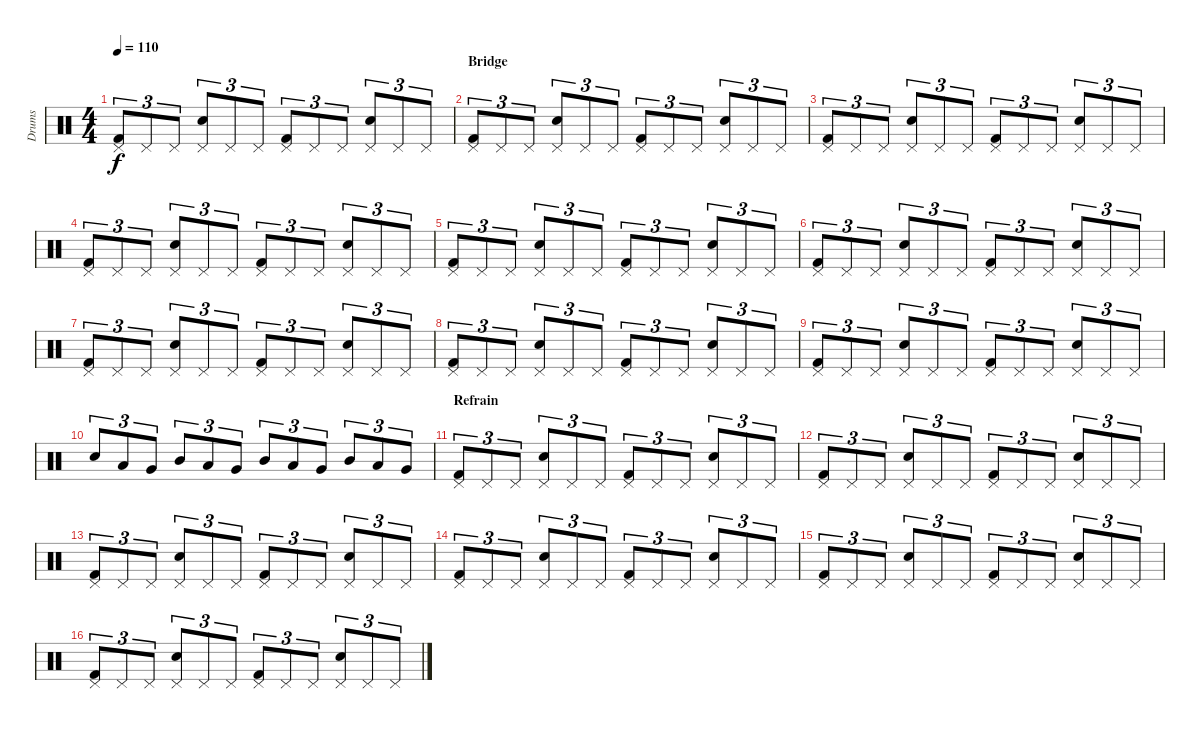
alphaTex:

\track ("Drums" "Drums") {instrument percussion}
\staff {score}
\articulation defaults
\ts (4 4)
\tempo 110
\clef neutral
\ks c
("Pedal Hi-Hat (hit)" "Kick (hit) 2").8{tu (3 2) dy f} "Pedal Hi-Hat (hit)".8{tu (3 2)} "Pedal Hi-Hat (hit)".8{tu (3 2)} ("Pedal Hi-Hat (hit)" "Electric Snare (hit)").8{tu (3 2)} "Pedal Hi-Hat (hit)".8{tu (3 2)} "Pedal Hi-Hat (hit)".8{tu (3 2)} ("Pedal Hi-Hat (hit)" "Kick (hit) 2").8{tu (3 2)} "Pedal Hi-Hat (hit)".8{tu (3 2)} "Pedal Hi-Hat (hit)".8{tu (3 2)} ("Pedal Hi-Hat (hit)" "Electric Snare (hit)").8{tu (3 2)} "Pedal Hi-Hat (hit)".8{tu (3 2)} "Pedal Hi-Hat (hit)".8{tu (3 2)} |
\section ("" "Bridge")
("Pedal Hi-Hat (hit)" "Kick (hit) 2").8{tu (3 2)} "Pedal Hi-Hat (hit)".8{tu (3 2)} "Pedal Hi-Hat (hit)".8{tu (3 2)} ("Pedal Hi-Hat (hit)" "Electric Snare (hit)").8{tu (3 2)} "Pedal Hi-Hat (hit)".8{tu (3 2)} "Pedal Hi-Hat (hit)".8{tu (3 2)} ("Pedal Hi-Hat (hit)" "Kick (hit) 2").8{tu (3 2)} "Pedal Hi-Hat (hit)".8{tu (3 2)} "Pedal Hi-Hat (hit)".8{tu (3 2)} ("Pedal Hi-Hat (hit)" "Electric Snare (hit)").8{tu (3 2)} "Pedal Hi-Hat (hit)".8{tu (3 2)} "Pedal Hi-Hat (hit)".8{tu (3 2)} |
("Pedal Hi-Hat (hit)" "Kick (hit) 2").8{tu (3 2)} "Pedal Hi-Hat (hit)".8{tu (3 2)} "Pedal Hi-Hat (hit)".8{tu (3 2)} ("Pedal Hi-Hat (hit)" "Electric Snare (hit)").8{tu (3 2)} "Pedal Hi-Hat (hit)".8{tu (3 2)} "Pedal Hi-Hat (hit)".8{tu (3 2)} ("Pedal Hi-Hat (hit)" "Kick (hit) 2").8{tu (3 2)} "Pedal Hi-Hat (hit)".8{tu (3 2)} "Pedal Hi-Hat (hit)".8{tu (3 2)} ("Pedal Hi-Hat (hit)" "Electric Snare (hit)").8{tu (3 2)} "Pedal Hi-Hat (hit)".8{tu (3 2)} "Pedal Hi-Hat (hit)".8{tu (3 2)} |
("Pedal Hi-Hat (hit)" "Kick (hit) 2").8{tu (3 2)} "Pedal Hi-Hat (hit)".8{tu (3 2)} "Pedal Hi-Hat (hit)".8{tu (3 2)} ("Pedal Hi-Hat (hit)" "Electric Snare (hit)").8{tu (3 2)} "Pedal Hi-Hat (hit)".8{tu (3 2)} "Pedal Hi-Hat (hit)".8{tu (3 2)} ("Pedal Hi-Hat (hit)" "Kick (hit) 2").8{tu (3 2)} "Pedal Hi-Hat (hit)".8{tu (3 2)} "Pedal Hi-Hat (hit)".8{tu (3 2)} ("Pedal Hi-Hat (hit)" "Electric Snare (hit)").8{tu (3 2)} "Pedal Hi-Hat (hit)".8{tu (3 2)} "Pedal Hi-Hat (hit)".8{tu (3 2)} |
("Pedal Hi-Hat (hit)" "Kick (hit) 2").8{tu (3 2)} "Pedal Hi-Hat (hit)".8{tu (3 2)} "Pedal Hi-Hat (hit)".8{tu (3 2)} ("Pedal Hi-Hat (hit)" "Electric Snare (hit)").8{tu (3 2)} "Pedal Hi-Hat (hit)".8{tu (3 2)} "Pedal Hi-Hat (hit)".8{tu (3 2)} ("Pedal Hi-Hat (hit)" "Kick (hit) 2").8{tu (3 2)} "Pedal Hi-Hat (hit)".8{tu (3 2)} "Pedal Hi-Hat (hit)".8{tu (3 2)} ("Pedal Hi-Hat (hit)" "Electric Snare (hit)").8{tu (3 2)} "Pedal Hi-Hat (hit)".8{tu (3 2)} "Pedal Hi-Hat (hit)".8{tu (3 2)} |
("Pedal Hi-Hat (hit)" "Kick (hit) 2").8{tu (3 2)} "Pedal Hi-Hat (hit)".8{tu (3 2)} "Pedal Hi-Hat (hit)".8{tu (3 2)} ("Pedal Hi-Hat (hit)" "Electric Snare (hit)").8{tu (3 2)} "Pedal Hi-Hat (hit)".8{tu (3 2)} "Pedal Hi-Hat (hit)".8{tu (3 2)} ("Pedal Hi-Hat (hit)" "Kick (hit) 2").8{tu (3 2)} "Pedal Hi-Hat (hit)".8{tu (3 2)} "Pedal Hi-Hat (hit)".8{tu (3 2)} ("Pedal Hi-Hat (hit)" "Electric Snare (hit)").8{tu (3 2)} "Pedal Hi-Hat (hit)".8{tu (3 2)} "Pedal Hi-Hat (hit)".8{tu (3 2)} |
("Pedal Hi-Hat (hit)" "Kick (hit) 2").8{tu (3 2)} "Pedal Hi-Hat (hit)".8{tu (3 2)} "Pedal Hi-Hat (hit)".8{tu (3 2)} ("Pedal Hi-Hat (hit)" "Electric Snare (hit)").8{tu (3 2)} "Pedal Hi-Hat (hit)".8{tu (3 2)} "Pedal Hi-Hat (hit)".8{tu (3 2)} ("Pedal Hi-Hat (hit)" "Kick (hit) 2").8{tu (3 2)} "Pedal Hi-Hat (hit)".8{tu (3 2)} "Pedal Hi-Hat (hit)".8{tu (3 2)} ("Pedal Hi-Hat (hit)" "Electric Snare (hit)").8{tu (3 2)} "Pedal Hi-Hat (hit)".8{tu (3 2)} "Pedal Hi-Hat (hit)".8{tu (3 2)} |
("Pedal Hi-Hat (hit)" "Kick (hit) 2").8{tu (3 2)} "Pedal Hi-Hat (hit)".8{tu (3 2)} "Pedal Hi-Hat (hit)".8{tu (3 2)} ("Pedal Hi-Hat (hit)" "Electric Snare (hit)").8{tu (3 2)} "Pedal Hi-Hat (hit)".8{tu (3 2)} "Pedal Hi-Hat (hit)".8{tu (3 2)} ("Pedal Hi-Hat (hit)" "Kick (hit) 2").8{tu (3 2)} "Pedal Hi-Hat (hit)".8{tu (3 2)} "Pedal Hi-Hat (hit)".8{tu (3 2)} ("Pedal Hi-Hat (hit)" "Electric Snare (hit)").8{tu (3 2)} "Pedal Hi-Hat (hit)".8{tu (3 2)} "Pedal Hi-Hat (hit)".8{tu (3 2)} |
("Pedal Hi-Hat (hit)" "Kick (hit) 2").8{tu (3 2)} "Pedal Hi-Hat (hit)".8{tu (3 2)} "Pedal Hi-Hat (hit)".8{tu (3 2)} ("Pedal Hi-Hat (hit)" "Electric Snare (hit)").8{tu (3 2)} "Pedal Hi-Hat (hit)".8{tu (3 2)} "Pedal Hi-Hat (hit)".8{tu (3 2)} ("Pedal Hi-Hat (hit)" "Kick (hit) 2").8{tu (3 2)} "Pedal Hi-Hat (hit)".8{tu (3 2)} "Pedal Hi-Hat (hit)".8{tu (3 2)} ("Pedal Hi-Hat (hit)" "Electric Snare (hit)").8{tu (3 2)} "Pedal Hi-Hat (hit)".8{tu (3 2)} "Pedal Hi-Hat (hit)".8{tu (3 2)} |
"Electric Snare (hit)".8{tu (3 2)} "Low Tom (hit)".8{tu (3 2)} "Very Low Tom (hit)".8{tu (3 2)} "Mid Tom (hit)".8{tu (3 2)} "Low Tom (hit)".8{tu (3 2)} "Very Low Tom (hit)".8{tu (3 2)} "Mid Tom (hit)".8{tu (3 2)} "Low Tom (hit)".8{tu (3 2)} "Very Low Tom (hit)".8{tu (3 2)} "Mid Tom (hit)".8{tu (3 2)} "Low Tom (hit)".8{tu (3 2)} "Very Low Tom (hit)".8{tu (3 2)} |
\section ("" "Refrain")
("Pedal Hi-Hat (hit)" "Kick (hit) 2").8{tu (3 2)} "Pedal Hi-Hat (hit)".8{tu (3 2)} "Pedal Hi-Hat (hit)".8{tu (3 2)} ("Pedal Hi-Hat (hit)" "Electric Snare (hit)").8{tu (3 2)} "Pedal Hi-Hat (hit)".8{tu (3 2)} "Pedal Hi-Hat (hit)".8{tu (3 2)} ("Pedal Hi-Hat (hit)" "Kick (hit) 2").8{tu (3 2)} "Pedal Hi-Hat (hit)".8{tu (3 2)} "Pedal Hi-Hat (hit)".8{tu (3 2)} ("Pedal Hi-Hat (hit)" "Electric Snare (hit)").8{tu (3 2)} "Pedal Hi-Hat (hit)".8{tu (3 2)} "Pedal Hi-Hat (hit)".8{tu (3 2)} |
("Pedal Hi-Hat (hit)" "Kick (hit) 2").8{tu (3 2)} "Pedal Hi-Hat (hit)".8{tu (3 2)} "Pedal Hi-Hat (hit)".8{tu (3 2)} ("Pedal Hi-Hat (hit)" "Electric Snare (hit)").8{tu (3 2)} "Pedal Hi-Hat (hit)".8{tu (3 2)} "Pedal Hi-Hat (hit)".8{tu (3 2)} ("Pedal Hi-Hat (hit)" "Kick (hit) 2").8{tu (3 2)} "Pedal Hi-Hat (hit)".8{tu (3 2)} "Pedal Hi-Hat (hit)".8{tu (3 2)} ("Pedal Hi-Hat (hit)" "Electric Snare (hit)").8{tu (3 2)} "Pedal Hi-Hat (hit)".8{tu (3 2)} "Pedal Hi-Hat (hit)".8{tu (3 2)} |
("Pedal Hi-Hat (hit)" "Kick (hit) 2").8{tu (3 2)} "Pedal Hi-Hat (hit)".8{tu (3 2)} "Pedal Hi-Hat (hit)".8{tu (3 2)} ("Pedal Hi-Hat (hit)" "Electric Snare (hit)").8{tu (3 2)} "Pedal Hi-Hat (hit)".8{tu (3 2)} "Pedal Hi-Hat (hit)".8{tu (3 2)} ("Pedal Hi-Hat (hit)" "Kick (hit) 2").8{tu (3 2)} "Pedal Hi-Hat (hit)".8{tu (3 2)} "Pedal Hi-Hat (hit)".8{tu (3 2)} ("Pedal Hi-Hat (hit)" "Electric Snare (hit)").8{tu (3 2)} "Pedal Hi-Hat (hit)".8{tu (3 2)} "Pedal Hi-Hat (hit)".8{tu (3 2)} |
("Pedal Hi-Hat (hit)" "Kick (hit) 2").8{tu (3 2)} "Pedal Hi-Hat (hit)".8{tu (3 2)} "Pedal Hi-Hat (hit)".8{tu (3 2)} ("Pedal Hi-Hat (hit)" "Electric Snare (hit)").8{tu (3 2)} "Pedal Hi-Hat (hit)".8{tu (3 2)} "Pedal Hi-Hat (hit)".8{tu (3 2)} ("Pedal Hi-Hat (hit)" "Kick (hit) 2").8{tu (3 2)} "Pedal Hi-Hat (hit)".8{tu (3 2)} "Pedal Hi-Hat (hit)".8{tu (3 2)} ("Pedal Hi-Hat (hit)" "Electric Snare (hit)").8{tu (3 2)} "Pedal Hi-Hat (hit)".8{tu (3 2)} "Pedal Hi-Hat (hit)".8{tu (3 2)} |
("Pedal Hi-Hat (hit)" "Kick (hit) 2").8{tu (3 2)} "Pedal Hi-Hat (hit)".8{tu (3 2)} "Pedal Hi-Hat (hit)".8{tu (3 2)} ("Pedal Hi-Hat (hit)" "Electric Snare (hit)").8{tu (3 2)} "Pedal Hi-Hat (hit)".8{tu (3 2)} "Pedal Hi-Hat (hit)".8{tu (3 2)} ("Pedal Hi-Hat (hit)" "Kick (hit) 2").8{tu (3 2)} "Pedal Hi-Hat (hit)".8{tu (3 2)} "Pedal Hi-Hat (hit)".8{tu (3 2)} ("Pedal Hi-Hat (hit)" "Electric Snare (hit)").8{tu (3 2)} "Pedal Hi-Hat (hit)".8{tu (3 2)} "Pedal Hi-Hat (hit)".8{tu (3 2)} |
("Pedal Hi-Hat (hit)" "Kick (hit) 2").8{tu (3 2)} "Pedal Hi-Hat (hit)".8{tu (3 2)} "Pedal Hi-Hat (hit)".8{tu (3 2)} ("Pedal Hi-Hat (hit)" "Electric Snare (hit)").8{tu (3 2)} "Pedal Hi-Hat (hit)".8{tu (3 2)} "Pedal Hi-Hat (hit)".8{tu (3 2)} ("Pedal Hi-Hat (hit)" "Kick (hit) 2").8{tu (3 2)} "Pedal Hi-Hat (hit)".8{tu (3 2)} "Pedal Hi-Hat (hit)".8{tu (3 2)} ("Pedal Hi-Hat (hit)" "Electric Snare (hit)").8{tu (3 2)} "Pedal Hi-Hat (hit)".8{tu (3 2)} "Pedal Hi-Hat (hit)".8{tu (3 2)}
